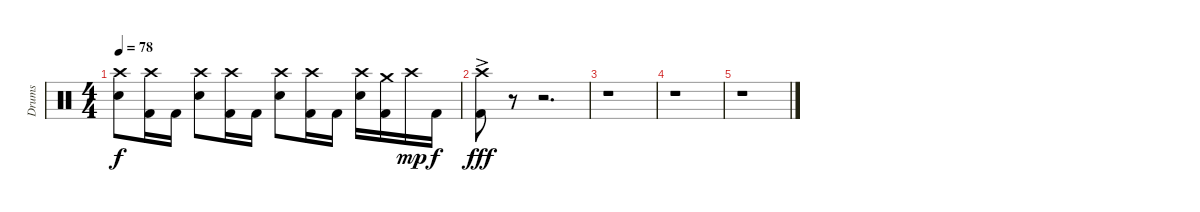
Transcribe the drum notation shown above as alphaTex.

\track ("Drums" "Drums") {instrument percussion}
\staff {score}
\articulation defaults
\ts (4 4)
\tempo 78
\clef neutral
\ks c
("Crash high (hit)" "Snare (hit) 2").8{dy f} ("Crash high (hit)" "Kick (hit) 2").16 "Kick (hit) 2".16 ("Crash high (hit)" "Snare (hit) 2").8 ("Crash high (hit)" "Kick (hit) 2").16 "Kick (hit) 2".16 ("Crash high (hit)" "Snare (hit) 2").8 ("Crash high (hit)" "Kick (hit) 2").16 "Kick (hit) 2".16 ("Crash high (hit)" "Snare (hit) 2").16 ("Crash medium (hit)" "Kick (hit) 2").16 "Crash high (hit)".16{dy mp} "Kick (hit) 2".16{dy f} |
("Crash high (hit)" "Kick (hit) 2"{ac}).8{dy fff} r.8{volume 0} r.2{d} |
r.1 |
r.1 |
r.1
